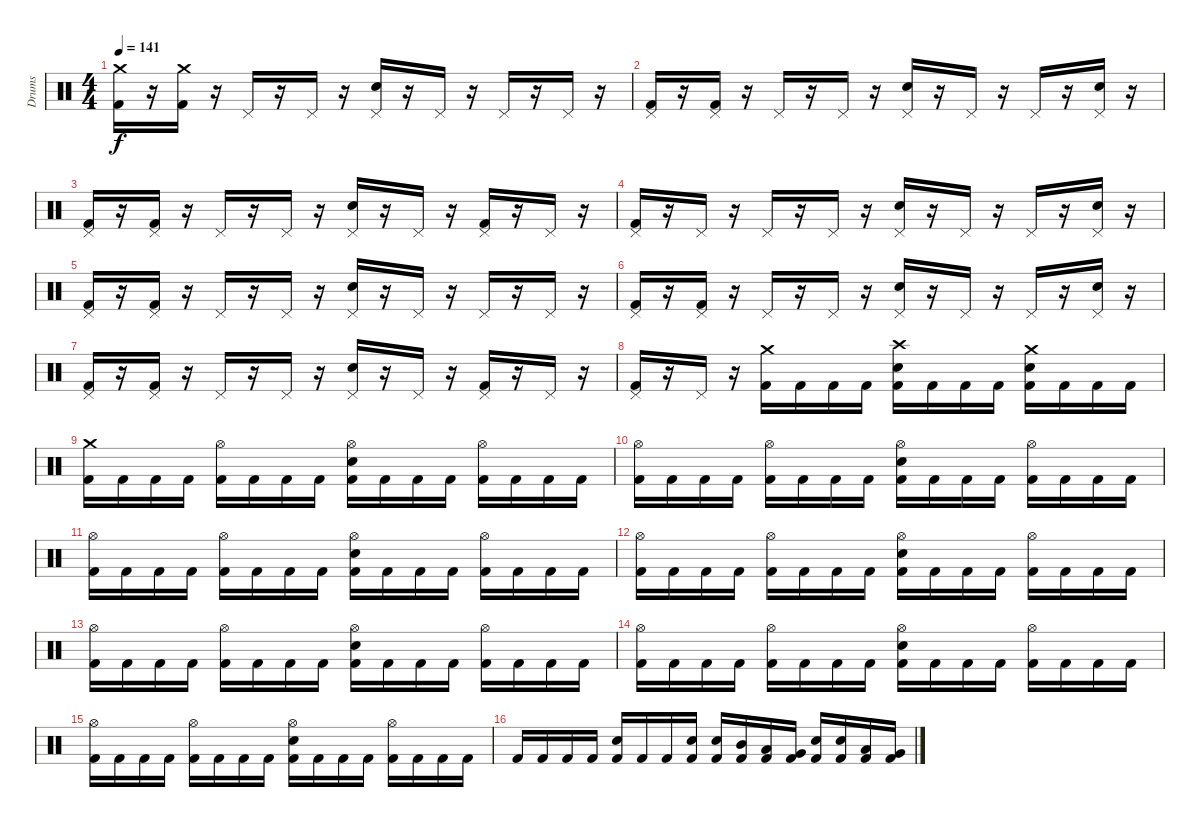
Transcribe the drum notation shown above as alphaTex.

\track ("Drums" "Drums") {instrument percussion}
\staff {score}
\articulation defaults
\ts (4 4)
\tempo 141
\clef neutral
\ks c
("Crash medium (hit)" "Kick (hit) 2").16{dy f} r.16 ("Crash medium (hit)" "Kick (hit) 2").16 r.16 "Pedal Hi-Hat (hit)".16 r.16 "Pedal Hi-Hat (hit)".16 r.16 ("Pedal Hi-Hat (hit)" "Electric Snare (hit)").16 r.16 "Pedal Hi-Hat (hit)".16 r.16 "Pedal Hi-Hat (hit)".16 r.16 "Pedal Hi-Hat (hit)".16 r.16 |
("Pedal Hi-Hat (hit)" "Kick (hit) 2").16 r.16 ("Pedal Hi-Hat (hit)" "Kick (hit) 2").16 r.16 "Pedal Hi-Hat (hit)".16 r.16 "Pedal Hi-Hat (hit)".16 r.16 ("Pedal Hi-Hat (hit)" "Electric Snare (hit)").16 r.16 "Pedal Hi-Hat (hit)".16 r.16 "Pedal Hi-Hat (hit)".16 r.16 ("Pedal Hi-Hat (hit)" "Electric Snare (hit)").16 r.16 |
("Pedal Hi-Hat (hit)" "Kick (hit) 2").16 r.16 ("Pedal Hi-Hat (hit)" "Kick (hit) 2").16 r.16 "Pedal Hi-Hat (hit)".16 r.16 "Pedal Hi-Hat (hit)".16 r.16 ("Pedal Hi-Hat (hit)" "Electric Snare (hit)").16 r.16 "Pedal Hi-Hat (hit)".16 r.16 ("Pedal Hi-Hat (hit)" "Kick (hit) 2").16 r.16 "Pedal Hi-Hat (hit)".16 r.16 |
("Pedal Hi-Hat (hit)" "Kick (hit) 2").16 r.16 "Pedal Hi-Hat (hit)".16 r.16 "Pedal Hi-Hat (hit)".16 r.16 "Pedal Hi-Hat (hit)".16 r.16 ("Pedal Hi-Hat (hit)" "Electric Snare (hit)").16 r.16 "Pedal Hi-Hat (hit)".16 r.16 "Pedal Hi-Hat (hit)".16 r.16 ("Pedal Hi-Hat (hit)" "Electric Snare (hit)").16 r.16 |
("Pedal Hi-Hat (hit)" "Kick (hit) 2").16 r.16 ("Pedal Hi-Hat (hit)" "Kick (hit) 2").16 r.16 "Pedal Hi-Hat (hit)".16 r.16 "Pedal Hi-Hat (hit)".16 r.16 ("Pedal Hi-Hat (hit)" "Electric Snare (hit)").16 r.16 "Pedal Hi-Hat (hit)".16 r.16 "Pedal Hi-Hat (hit)".16 r.16 "Pedal Hi-Hat (hit)".16 r.16 |
("Pedal Hi-Hat (hit)" "Kick (hit) 2").16 r.16 ("Pedal Hi-Hat (hit)" "Kick (hit) 2").16 r.16 "Pedal Hi-Hat (hit)".16 r.16 "Pedal Hi-Hat (hit)".16 r.16 ("Pedal Hi-Hat (hit)" "Electric Snare (hit)").16 r.16 "Pedal Hi-Hat (hit)".16 r.16 "Pedal Hi-Hat (hit)".16 r.16 ("Pedal Hi-Hat (hit)" "Electric Snare (hit)").16 r.16 |
("Pedal Hi-Hat (hit)" "Kick (hit) 2").16 r.16 ("Pedal Hi-Hat (hit)" "Kick (hit) 2").16 r.16 "Pedal Hi-Hat (hit)".16 r.16 "Pedal Hi-Hat (hit)".16 r.16 ("Pedal Hi-Hat (hit)" "Electric Snare (hit)").16 r.16 "Pedal Hi-Hat (hit)".16 r.16 ("Pedal Hi-Hat (hit)" "Kick (hit) 2").16 r.16 "Pedal Hi-Hat (hit)".16 r.16 |
("Pedal Hi-Hat (hit)" "Kick (hit) 2").16 r.16 "Pedal Hi-Hat (hit)".16 r.16 ("Crash medium (hit)" "Kick (hit) 2").16 "Kick (hit) 2".16 "Kick (hit) 2".16 "Kick (hit) 2".16 ("Crash high (hit)" "Electric Snare (hit)" "Kick (hit) 2").16 "Kick (hit) 2".16 "Kick (hit) 2".16 "Kick (hit) 2".16 ("Crash medium (hit)" "Electric Snare (hit)" "Kick (hit) 2").16 "Kick (hit) 2".16 "Kick (hit) 2".16 "Kick (hit) 2".16 |
\section ("" "")
("Crash medium (hit)" "Kick (hit) 2").16 "Kick (hit) 2".16 "Kick (hit) 2".16 "Kick (hit) 2".16 ("Hi-Hat (open)" "Kick (hit) 2").16 "Kick (hit) 2".16 "Kick (hit) 2".16 "Kick (hit) 2".16 ("Hi-Hat (open)" "Electric Snare (hit)" "Kick (hit) 2").16 "Kick (hit) 2".16 "Kick (hit) 2".16 "Kick (hit) 2".16 ("Hi-Hat (open)" "Kick (hit) 2").16 "Kick (hit) 2".16 "Kick (hit) 2".16 "Kick (hit) 2".16 |
("Hi-Hat (open)" "Kick (hit) 2").16 "Kick (hit) 2".16 "Kick (hit) 2".16 "Kick (hit) 2".16 ("Hi-Hat (open)" "Kick (hit) 2").16 "Kick (hit) 2".16 "Kick (hit) 2".16 "Kick (hit) 2".16 ("Hi-Hat (open)" "Electric Snare (hit)" "Kick (hit) 2").16 "Kick (hit) 2".16 "Kick (hit) 2".16 "Kick (hit) 2".16 ("Hi-Hat (open)" "Kick (hit) 2").16 "Kick (hit) 2".16 "Kick (hit) 2".16 "Kick (hit) 2".16 |
("Hi-Hat (open)" "Kick (hit) 2").16 "Kick (hit) 2".16 "Kick (hit) 2".16 "Kick (hit) 2".16 ("Hi-Hat (open)" "Kick (hit) 2").16 "Kick (hit) 2".16 "Kick (hit) 2".16 "Kick (hit) 2".16 ("Hi-Hat (open)" "Electric Snare (hit)" "Kick (hit) 2").16 "Kick (hit) 2".16 "Kick (hit) 2".16 "Kick (hit) 2".16 ("Hi-Hat (open)" "Kick (hit) 2").16 "Kick (hit) 2".16 "Kick (hit) 2".16 "Kick (hit) 2".16 |
("Hi-Hat (open)" "Kick (hit) 2").16 "Kick (hit) 2".16 "Kick (hit) 2".16 "Kick (hit) 2".16 ("Hi-Hat (open)" "Kick (hit) 2").16 "Kick (hit) 2".16 "Kick (hit) 2".16 "Kick (hit) 2".16 ("Hi-Hat (open)" "Electric Snare (hit)" "Kick (hit) 2").16 "Kick (hit) 2".16 "Kick (hit) 2".16 "Kick (hit) 2".16 ("Hi-Hat (open)" "Kick (hit) 2").16 "Kick (hit) 2".16 "Kick (hit) 2".16 "Kick (hit) 2".16 |
("Hi-Hat (open)" "Kick (hit) 2").16 "Kick (hit) 2".16 "Kick (hit) 2".16 "Kick (hit) 2".16 ("Hi-Hat (open)" "Kick (hit) 2").16 "Kick (hit) 2".16 "Kick (hit) 2".16 "Kick (hit) 2".16 ("Hi-Hat (open)" "Electric Snare (hit)" "Kick (hit) 2").16 "Kick (hit) 2".16 "Kick (hit) 2".16 "Kick (hit) 2".16 ("Hi-Hat (open)" "Kick (hit) 2").16 "Kick (hit) 2".16 "Kick (hit) 2".16 "Kick (hit) 2".16 |
("Hi-Hat (open)" "Kick (hit) 2").16 "Kick (hit) 2".16 "Kick (hit) 2".16 "Kick (hit) 2".16 ("Hi-Hat (open)" "Kick (hit) 2").16 "Kick (hit) 2".16 "Kick (hit) 2".16 "Kick (hit) 2".16 ("Hi-Hat (open)" "Electric Snare (hit)" "Kick (hit) 2").16 "Kick (hit) 2".16 "Kick (hit) 2".16 "Kick (hit) 2".16 ("Hi-Hat (open)" "Kick (hit) 2").16 "Kick (hit) 2".16 "Kick (hit) 2".16 "Kick (hit) 2".16 |
("Hi-Hat (open)" "Kick (hit) 2").16 "Kick (hit) 2".16 "Kick (hit) 2".16 "Kick (hit) 2".16 ("Hi-Hat (open)" "Kick (hit) 2").16 "Kick (hit) 2".16 "Kick (hit) 2".16 "Kick (hit) 2".16 ("Hi-Hat (open)" "Electric Snare (hit)" "Kick (hit) 2").16 "Kick (hit) 2".16 "Kick (hit) 2".16 "Kick (hit) 2".16 ("Hi-Hat (open)" "Kick (hit) 2").16 "Kick (hit) 2".16 "Kick (hit) 2".16 "Kick (hit) 2".16 |
"Kick (hit) 2".16 "Kick (hit) 2".16 "Kick (hit) 2".16 "Kick (hit) 2".16 ("Electric Snare (hit)" "Kick (hit) 2").16 "Kick (hit) 2".16 "Kick (hit) 2".16 ("Electric Snare (hit)" "Kick (hit) 2").16 ("Electric Snare (hit)" "Kick (hit) 2").16 ("Mid Tom (hit)" "Kick (hit) 2").16 ("Low Tom (hit)" "Kick (hit) 2").16 ("Very Low Tom (hit)" "Kick (hit) 2").16 ("Electric Snare (hit)" "Kick (hit) 2").16 ("Electric Snare (hit)" "Kick (hit) 2").16 ("Low Tom (hit)" "Kick (hit) 2").16 ("Very Low Tom (hit)" "Kick (hit) 2").16
